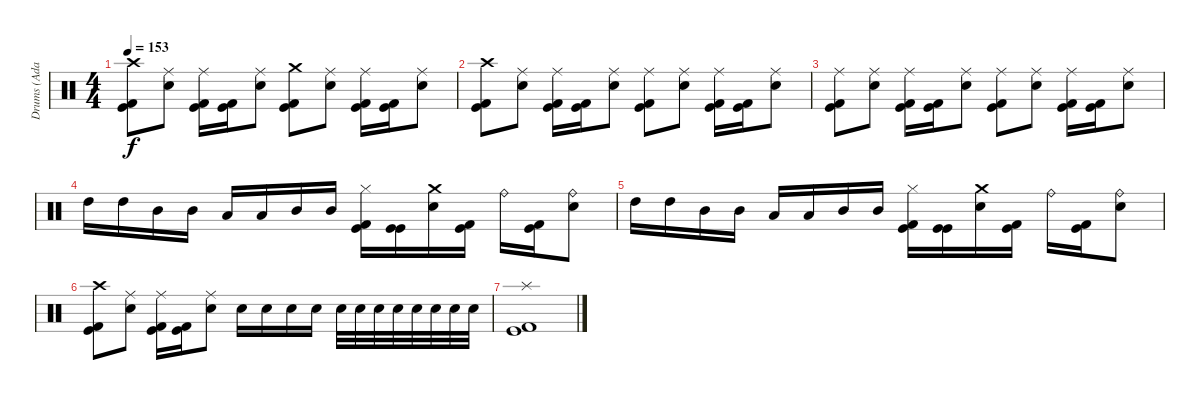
\track ("Drums (Adam)" "Drums (Ada") {instrument percussion}
\staff {score}
\articulation defaults
\ts (4 4)
\tempo 153
\clef neutral
\ks c
("Crash high (hit)" "Kick (hit)" "Kick (hit) 2").8{dy f} ("Ride (middle)" "Snare (hit) 2").8 ("Ride (middle)" "Kick (hit)" "Kick (hit) 2").16 ("Kick (hit)" "Kick (hit) 2").16 ("Ride (middle)" "Snare (hit) 2").8 ("Crash medium (hit)" "Kick (hit)" "Kick (hit) 2").8 ("Ride (middle)" "Snare (hit) 2").8 ("Ride (middle)" "Kick (hit)" "Kick (hit) 2").16 ("Kick (hit)" "Kick (hit) 2").16 ("Ride (middle)" "Snare (hit) 2").8 |
("Crash high (hit)" "Kick (hit)" "Kick (hit) 2").8 ("Ride (middle)" "Snare (hit) 2").8 ("Ride (middle)" "Kick (hit)" "Kick (hit) 2").16 ("Kick (hit)" "Kick (hit) 2").16 ("Ride (middle)" "Snare (hit) 2").8 ("Ride (middle)" "Kick (hit)" "Kick (hit) 2").8 ("Ride (middle)" "Snare (hit) 2").8 ("Ride (middle)" "Kick (hit)" "Kick (hit) 2").16 ("Kick (hit)" "Kick (hit) 2").16 ("Ride (middle)" "Snare (hit) 2").8 |
("Ride (middle)" "Kick (hit)" "Kick (hit) 2").8 ("Ride (middle)" "Snare (hit) 2").8 ("Ride (middle)" "Kick (hit)" "Kick (hit) 2").16 ("Kick (hit)" "Kick (hit) 2").16 ("Ride (middle)" "Snare (hit) 2").8 ("Ride (middle)" "Kick (hit)" "Kick (hit) 2").8 ("Ride (middle)" "Snare (hit) 2").8 ("Ride (middle)" "Kick (hit)" "Kick (hit) 2").16 ("Kick (hit)" "Kick (hit) 2").16 ("Ride (middle)" "Snare (hit) 2").8 |
"High Tom (hit)".16 "High Tom (hit)".16 "Mid Tom (hit)".16 "Mid Tom (hit)".16 "Low Tom (hit)".16 "Low Tom (hit)".16 "Mid Tom (hit)".16 "Mid Tom (hit)".16 ("Hi-Hat (closed)" "Kick (hit)" "Kick (hit) 2").16 ("Kick (hit)" "Kick (hit)").16 ("Crash medium (hit)" "Snare (hit) 2").16 ("Kick (hit)" "Kick (hit) 2").16 "Ride (bell)".16 ("Kick (hit)" "Kick (hit) 2").16 ("Ride (bell)" "Snare (hit) 2").8 |
"High Tom (hit)".16 "High Tom (hit)".16 "Mid Tom (hit)".16 "Mid Tom (hit)".16 "Low Tom (hit)".16 "Low Tom (hit)".16 "Mid Tom (hit)".16 "Mid Tom (hit)".16 ("Hi-Hat (closed)" "Kick (hit)" "Kick (hit) 2").16 ("Kick (hit)" "Kick (hit)").16 ("Crash medium (hit)" "Snare (hit) 2").16 ("Kick (hit)" "Kick (hit) 2").16 "Ride (bell)".16 ("Kick (hit)" "Kick (hit) 2").16 ("Ride (bell)" "Snare (hit) 2").8 |
("Crash high (hit)" "Kick (hit)" "Kick (hit) 2").8 ("Ride (middle)" "Snare (hit) 2").8 ("Ride (middle)" "Kick (hit)" "Kick (hit) 2").16 ("Kick (hit)" "Kick (hit) 2").16 ("Ride (middle)" "Snare (hit) 2").8 "Snare (hit) 2".16 "Snare (hit) 2".16 "Snare (hit) 2".16 "Snare (hit) 2".16 "Snare (hit) 2".32 "Snare (hit) 2".32 "Snare (hit) 2".32 "Snare (hit) 2".32 "Snare (hit) 2".32 "Snare (hit) 2".32 "Snare (hit) 2".32 "Snare (hit) 2".32 |
("Splash (hit)" "Kick (hit)" "Kick (hit) 2").1
